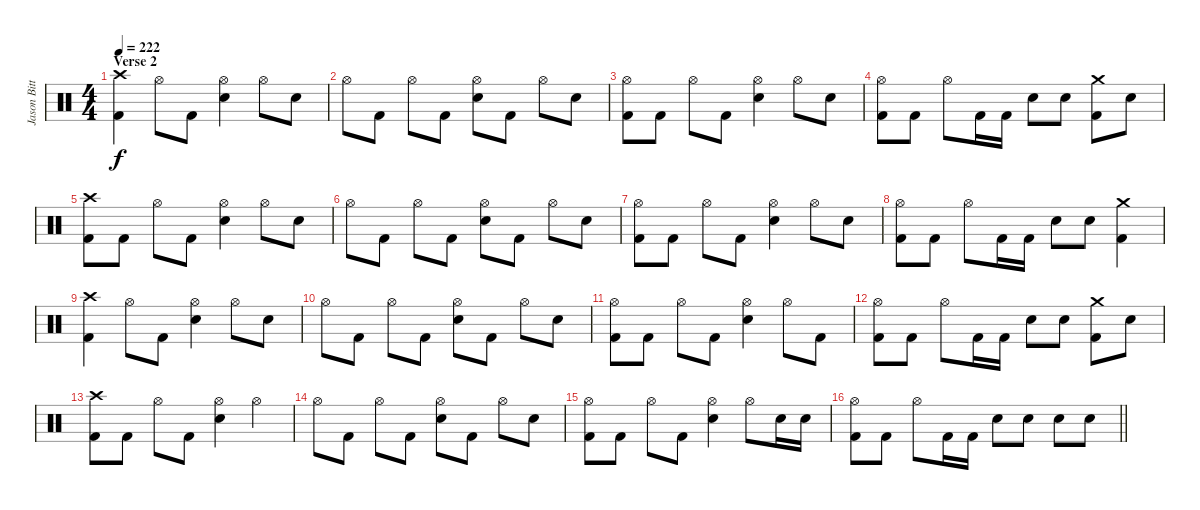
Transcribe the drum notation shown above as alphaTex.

\track ("Jason Bittner" "Jason Bitt") {instrument percussion}
\staff {score}
\articulation defaults
\ts (4 4)
\section ("" "Verse 2")
\tempo 222
\clef neutral
\ks c
("Crash high (hit)" "Kick (hit) 2").4{dy f} "Hi-Hat (open)".8 "Kick (hit) 2".8 ("Hi-Hat (open)" "Electric Snare (hit)").4 "Hi-Hat (open)".8 "Electric Snare (hit)".8 |
"Hi-Hat (open)".8 "Kick (hit) 2".8 "Hi-Hat (open)".8 "Kick (hit) 2".8 ("Hi-Hat (open)" "Electric Snare (hit)").8 "Kick (hit) 2".8 "Hi-Hat (open)".8 "Electric Snare (hit)".8 |
("Hi-Hat (open)" "Kick (hit) 2").8 "Kick (hit) 2".8 "Hi-Hat (open)".8 "Kick (hit) 2".8 ("Hi-Hat (open)" "Electric Snare (hit)").4 "Hi-Hat (open)".8 "Electric Snare (hit)".8 |
("Hi-Hat (open)" "Kick (hit) 2").8 "Kick (hit) 2".8 "Hi-Hat (open)".8 "Kick (hit) 2".16 "Kick (hit) 2".16 "Electric Snare (hit)".8 "Electric Snare (hit)".8 ("Crash medium (hit)" "Kick (hit) 2").8 "Electric Snare (hit)".8 |
("Crash high (hit)" "Kick (hit) 2").8 "Kick (hit) 2".8 "Hi-Hat (open)".8 "Kick (hit) 2".8 ("Hi-Hat (open)" "Electric Snare (hit)").4 "Hi-Hat (open)".8 "Electric Snare (hit)".8 |
"Hi-Hat (open)".8 "Kick (hit) 2".8 "Hi-Hat (open)".8 "Kick (hit) 2".8 ("Hi-Hat (open)" "Electric Snare (hit)").8 "Kick (hit) 2".8 "Hi-Hat (open)".8 "Electric Snare (hit)".8 |
("Hi-Hat (open)" "Kick (hit) 2").8 "Kick (hit) 2".8 "Hi-Hat (open)".8 "Kick (hit) 2".8 ("Hi-Hat (open)" "Electric Snare (hit)").4 "Hi-Hat (open)".8 "Electric Snare (hit)".8 |
("Hi-Hat (open)" "Kick (hit) 2").8 "Kick (hit) 2".8 "Hi-Hat (open)".8 "Kick (hit) 2".16 "Kick (hit) 2".16 "Electric Snare (hit)".8 "Electric Snare (hit)".8 ("Crash medium (hit)" "Kick (hit) 2").4 |
("Crash high (hit)" "Kick (hit) 2").4 "Hi-Hat (open)".8 "Kick (hit) 2".8 ("Hi-Hat (open)" "Electric Snare (hit)").4 "Hi-Hat (open)".8 "Electric Snare (hit)".8 |
"Hi-Hat (open)".8 "Kick (hit) 2".8 "Hi-Hat (open)".8 "Kick (hit) 2".8 ("Hi-Hat (open)" "Electric Snare (hit)").8 "Kick (hit) 2".8 "Hi-Hat (open)".8 "Electric Snare (hit)".8 |
("Hi-Hat (open)" "Kick (hit) 2").8 "Kick (hit) 2".8 "Hi-Hat (open)".8 "Kick (hit) 2".8 ("Hi-Hat (open)" "Electric Snare (hit)").4 "Hi-Hat (open)".8 "Kick (hit) 2".8 |
("Hi-Hat (open)" "Kick (hit) 2").8 "Kick (hit) 2".8 "Hi-Hat (open)".8 "Kick (hit) 2".16 "Kick (hit) 2".16 "Electric Snare (hit)".8 "Electric Snare (hit)".8 ("Crash medium (hit)" "Kick (hit) 2").8 "Electric Snare (hit)".8 |
("Crash high (hit)" "Kick (hit) 2").8 "Kick (hit) 2".8 "Hi-Hat (open)".8 "Kick (hit) 2".8 ("Hi-Hat (open)" "Electric Snare (hit)").4 "Hi-Hat (open)".4 |
"Hi-Hat (open)".8 "Kick (hit) 2".8 "Hi-Hat (open)".8 "Kick (hit) 2".8 ("Hi-Hat (open)" "Electric Snare (hit)").8 "Kick (hit) 2".8 "Hi-Hat (open)".8 "Electric Snare (hit)".8 |
("Hi-Hat (open)" "Kick (hit) 2").8 "Kick (hit) 2".8 "Hi-Hat (open)".8 "Kick (hit) 2".8 ("Hi-Hat (open)" "Electric Snare (hit)").4 "Hi-Hat (open)".8 "Electric Snare (hit)".16 "Electric Snare (hit)".16 |
\barLineRight lightlight
("Hi-Hat (open)" "Kick (hit) 2").8 "Kick (hit) 2".8 "Hi-Hat (open)".8 "Kick (hit) 2".16 "Kick (hit) 2".16 "Electric Snare (hit)".8 "Electric Snare (hit)".8 "Electric Snare (hit)".8 "Electric Snare (hit)".8
